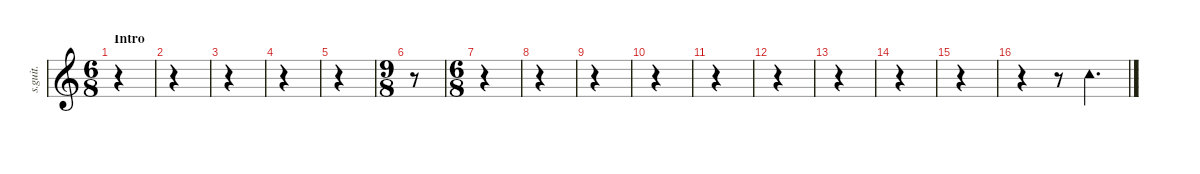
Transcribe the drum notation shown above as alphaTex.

\defaultSystemsLayout 4
\hideDynamics
\bracketExtendMode nobrackets
\track ("Lars Ulrich - Drums" "s.guit.") {instrument percussion}
\staff {score}
\articulation defaults
\ts (6 8)
\beaming (8 2 2 2 2)
\section ("" "Intro")
\tempo (71 hide)
\clef g2
\ks c
r.4{dy mf} |
r.4 |
r.4 |
r.4 |
r.4 |
\ts (9 8)
\beaming (8 2 2 2 2)
r.8 |
\ts (6 8)
\beaming (8 2 2 2 2)
r.4 |
r.4 |
r.4 |
r.4 |
r.4 |
r.4 |
r.4 |
r.4 |
r.4 |
r.4 r.8 "Tambourine (hit)".4{d lyrics (0 "") lyrics (1 "") lyrics (2 "") lyrics (3 "") lyrics (4 "")}
